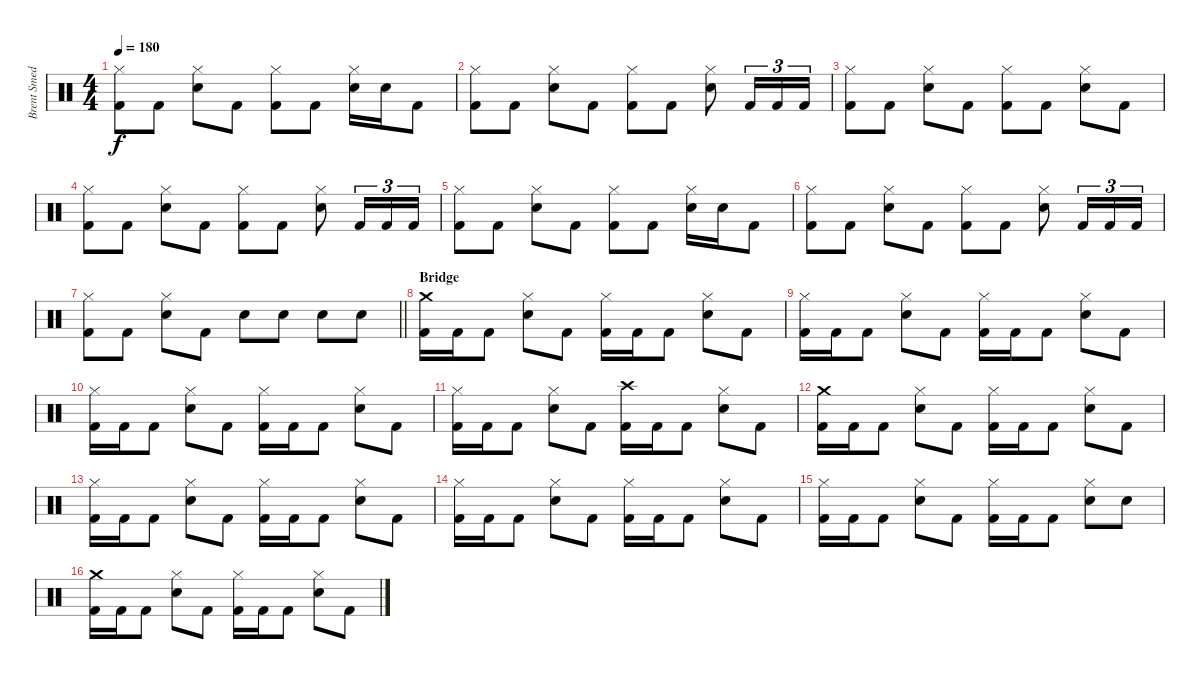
\track ("Brent Smedley" "Brent Smed") {instrument percussion}
\staff {score}
\articulation defaults
\ts (4 4)
\tempo 180
\clef neutral
\ks c
("Hi-Hat (closed)" "Kick (hit) 2").8{dy f} "Kick (hit) 2".8 ("Hi-Hat (closed)" "Snare (hit) 2").8 "Kick (hit) 2".8 ("Hi-Hat (closed)" "Kick (hit) 2").8 "Kick (hit) 2".8 ("Hi-Hat (closed)" "Snare (hit) 2").16 "Snare (hit) 2".16 "Kick (hit) 2".8 |
("Hi-Hat (closed)" "Kick (hit) 2").8 "Kick (hit) 2".8 ("Hi-Hat (closed)" "Snare (hit) 2").8 "Kick (hit) 2".8 ("Hi-Hat (closed)" "Kick (hit) 2").8 "Kick (hit) 2".8 ("Hi-Hat (closed)" "Snare (hit) 2").8 "Kick (hit) 2".16{tu (3 2)} "Kick (hit) 2".16{tu (3 2)} "Kick (hit) 2".16{tu (3 2)} |
("Hi-Hat (closed)" "Kick (hit) 2").8 "Kick (hit) 2".8 ("Hi-Hat (closed)" "Snare (hit) 2").8 "Kick (hit) 2".8 ("Hi-Hat (closed)" "Kick (hit) 2").8 "Kick (hit) 2".8 ("Hi-Hat (closed)" "Snare (hit) 2").8 "Kick (hit) 2".8 |
("Hi-Hat (closed)" "Kick (hit) 2").8 "Kick (hit) 2".8 ("Hi-Hat (closed)" "Snare (hit) 2").8 "Kick (hit) 2".8 ("Hi-Hat (closed)" "Kick (hit) 2").8 "Kick (hit) 2".8 ("Hi-Hat (closed)" "Snare (hit) 2").8 "Kick (hit) 2".16{tu (3 2)} "Kick (hit) 2".16{tu (3 2)} "Kick (hit) 2".16{tu (3 2)} |
("Hi-Hat (closed)" "Kick (hit) 2").8 "Kick (hit) 2".8 ("Hi-Hat (closed)" "Snare (hit) 2").8 "Kick (hit) 2".8 ("Hi-Hat (closed)" "Kick (hit) 2").8 "Kick (hit) 2".8 ("Hi-Hat (closed)" "Snare (hit) 2").16 "Snare (hit) 2".16 "Kick (hit) 2".8 |
("Hi-Hat (closed)" "Kick (hit) 2").8 "Kick (hit) 2".8 ("Hi-Hat (closed)" "Snare (hit) 2").8 "Kick (hit) 2".8 ("Hi-Hat (closed)" "Kick (hit) 2").8 "Kick (hit) 2".8 ("Hi-Hat (closed)" "Snare (hit) 2").8 "Kick (hit) 2".16{tu (3 2)} "Kick (hit) 2".16{tu (3 2)} "Kick (hit) 2".16{tu (3 2)} |
\barLineRight lightlight
("Hi-Hat (closed)" "Kick (hit) 2").8 "Kick (hit) 2".8 ("Hi-Hat (closed)" "Snare (hit) 2").8 "Kick (hit) 2".8 "Snare (hit) 2".8 "Snare (hit) 2".8 "Snare (hit) 2".8 "Snare (hit) 2".8 |
\section ("" "Bridge")
("Crash medium (hit)" "Kick (hit) 2").16 "Kick (hit) 2".16 "Kick (hit) 2".8 ("Hi-Hat (closed)" "Snare (hit) 2").8 "Kick (hit) 2".8 ("Hi-Hat (closed)" "Kick (hit) 2").16 "Kick (hit) 2".16 "Kick (hit) 2".8 ("Hi-Hat (closed)" "Snare (hit) 2").8 "Kick (hit) 2".8 |
("Hi-Hat (closed)" "Kick (hit) 2").16 "Kick (hit) 2".16 "Kick (hit) 2".8 ("Hi-Hat (closed)" "Snare (hit) 2").8 "Kick (hit) 2".8 ("Hi-Hat (closed)" "Kick (hit) 2").16 "Kick (hit) 2".16 "Kick (hit) 2".8 ("Hi-Hat (closed)" "Snare (hit) 2").8 "Kick (hit) 2".8 |
("Hi-Hat (closed)" "Kick (hit) 2").16 "Kick (hit) 2".16 "Kick (hit) 2".8 ("Hi-Hat (closed)" "Snare (hit) 2").8 "Kick (hit) 2".8 ("Hi-Hat (closed)" "Kick (hit) 2").16 "Kick (hit) 2".16 "Kick (hit) 2".8 ("Hi-Hat (closed)" "Snare (hit) 2").8 "Kick (hit) 2".8 |
("Hi-Hat (closed)" "Kick (hit) 2").16 "Kick (hit) 2".16 "Kick (hit) 2".8 ("Hi-Hat (closed)" "Snare (hit) 2").8 "Kick (hit) 2".8 ("Crash high (hit)" "Kick (hit) 2").16 "Kick (hit) 2".16 "Kick (hit) 2".8 ("Hi-Hat (closed)" "Snare (hit) 2").8 "Kick (hit) 2".8 |
("Crash medium (hit)" "Kick (hit) 2").16 "Kick (hit) 2".16 "Kick (hit) 2".8 ("Hi-Hat (closed)" "Snare (hit) 2").8 "Kick (hit) 2".8 ("Hi-Hat (closed)" "Kick (hit) 2").16 "Kick (hit) 2".16 "Kick (hit) 2".8 ("Hi-Hat (closed)" "Snare (hit) 2").8 "Kick (hit) 2".8 |
("Hi-Hat (closed)" "Kick (hit) 2").16 "Kick (hit) 2".16 "Kick (hit) 2".8 ("Hi-Hat (closed)" "Snare (hit) 2").8 "Kick (hit) 2".8 ("Hi-Hat (closed)" "Kick (hit) 2").16 "Kick (hit) 2".16 "Kick (hit) 2".8 ("Hi-Hat (closed)" "Snare (hit) 2").8 "Kick (hit) 2".8 |
("Hi-Hat (closed)" "Kick (hit) 2").16 "Kick (hit) 2".16 "Kick (hit) 2".8 ("Hi-Hat (closed)" "Snare (hit) 2").8 "Kick (hit) 2".8 ("Hi-Hat (closed)" "Kick (hit) 2").16 "Kick (hit) 2".16 "Kick (hit) 2".8 ("Hi-Hat (closed)" "Snare (hit) 2").8 "Kick (hit) 2".8 |
("Hi-Hat (closed)" "Kick (hit) 2").16 "Kick (hit) 2".16 "Kick (hit) 2".8 ("Hi-Hat (closed)" "Snare (hit) 2").8 "Kick (hit) 2".8 ("Hi-Hat (closed)" "Kick (hit) 2").16 "Kick (hit) 2".16 "Kick (hit) 2".8 ("Hi-Hat (closed)" "Snare (hit) 2").8 "Snare (hit) 2".8 |
("Crash medium (hit)" "Kick (hit) 2").16 "Kick (hit) 2".16 "Kick (hit) 2".8 ("Hi-Hat (closed)" "Snare (hit) 2").8 "Kick (hit) 2".8 ("Hi-Hat (closed)" "Kick (hit) 2").16 "Kick (hit) 2".16 "Kick (hit) 2".8 ("Hi-Hat (closed)" "Snare (hit) 2").8 "Kick (hit) 2".8
